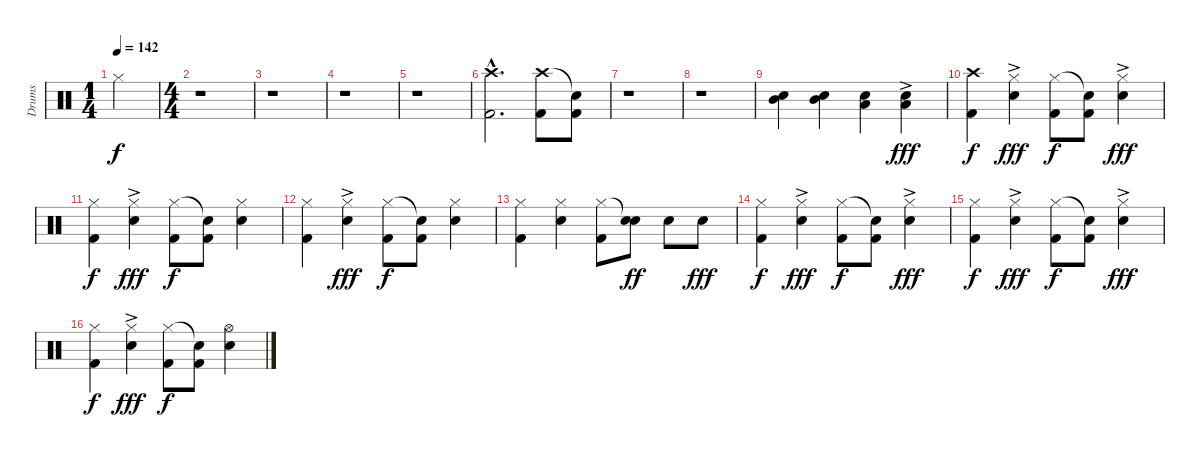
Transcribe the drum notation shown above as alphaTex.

\track ("Drums" "Drums") {instrument percussion}
\staff {score}
\articulation defaults
\ts (1 4)
\tempo 142
\clef neutral
\ks aminor "Hi-Hat (closed)".4{dy f}
|
\ts (4 4)
r.1 |
r.1 |
r.1 |
r.1 |
("Crash high (hit)"{hac} "Kick (hit) 2"{hac}).2{d} ("Crash high (hit)" "Kick (hit) 2").8 ("Snare (hit)"{t} "Kick (hit) 2").8 |
r.1 |
r.1 |
("Mid Tom (hit)" "Snare (hit) 2").4 ("Mid Tom (hit)" "Snare (hit) 2").4 ("Low Floor Tom (hit)" "Snare (hit) 2").4 ("Low Floor Tom (hit)"{ac} "Snare (hit) 2"{ac}).4{dy fff} |
("Crash high (hit)" "Kick (hit) 2").4{dy f} ("Hi-Hat (closed)"{ac} "Snare (hit) 2").4{dy fff} ("Hi-Hat (closed)" "Kick (hit) 2").8{dy f} ("Snare (hit)"{t} "Kick (hit) 2").8 ("Hi-Hat (closed)"{ac} "Snare (hit) 2").4{dy fff} |
("Hi-Hat (closed)" "Kick (hit) 2").4{dy f} ("Hi-Hat (closed)"{ac} "Snare (hit) 2").4{dy fff} ("Hi-Hat (closed)" "Kick (hit) 2").8{dy f} ("Snare (hit)"{t} "Kick (hit) 2").8 ("Hi-Hat (closed)" "Snare (hit) 2").4 |
("Hi-Hat (closed)" "Kick (hit) 2").4 ("Hi-Hat (closed)"{ac} "Snare (hit) 2").4{dy fff} ("Hi-Hat (closed)" "Kick (hit) 2").8{dy f} ("Snare (hit)"{t} "Kick (hit) 2").8 ("Hi-Hat (closed)" "Snare (hit) 2").4 |
("Hi-Hat (closed)" "Kick (hit) 2").4 ("Hi-Hat (closed)" "Snare (hit) 2").4 ("Hi-Hat (closed)" "Kick (hit) 2").8 ("Snare (hit)"{t} "Snare (hit) 2").8{dy ff} "Snare (hit) 2".8 "Snare (hit) 2".8{dy fff} |
("Hi-Hat (closed)" "Kick (hit) 2").4{dy f} ("Hi-Hat (closed)"{ac} "Snare (hit) 2").4{dy fff} ("Hi-Hat (closed)" "Kick (hit) 2").8{dy f} ("Snare (hit)"{t} "Kick (hit) 2").8 ("Hi-Hat (closed)"{ac} "Snare (hit) 2").4{dy fff} |
("Hi-Hat (closed)" "Kick (hit) 2").4{dy f} ("Hi-Hat (closed)"{ac} "Snare (hit) 2").4{dy fff} ("Hi-Hat (closed)" "Kick (hit) 2").8{dy f} ("Snare (hit)"{t} "Kick (hit) 2").8 ("Hi-Hat (closed)"{ac} "Snare (hit) 2").4{dy fff} |
("Hi-Hat (closed)" "Kick (hit) 2").4{dy f} ("Hi-Hat (closed)"{ac} "Snare (hit) 2").4{dy fff} ("Hi-Hat (closed)" "Kick (hit) 2").8{dy f} ("Snare (hit)"{t} "Kick (hit) 2").8 ("Hi-Hat (open)" "Snare (hit) 2").4
